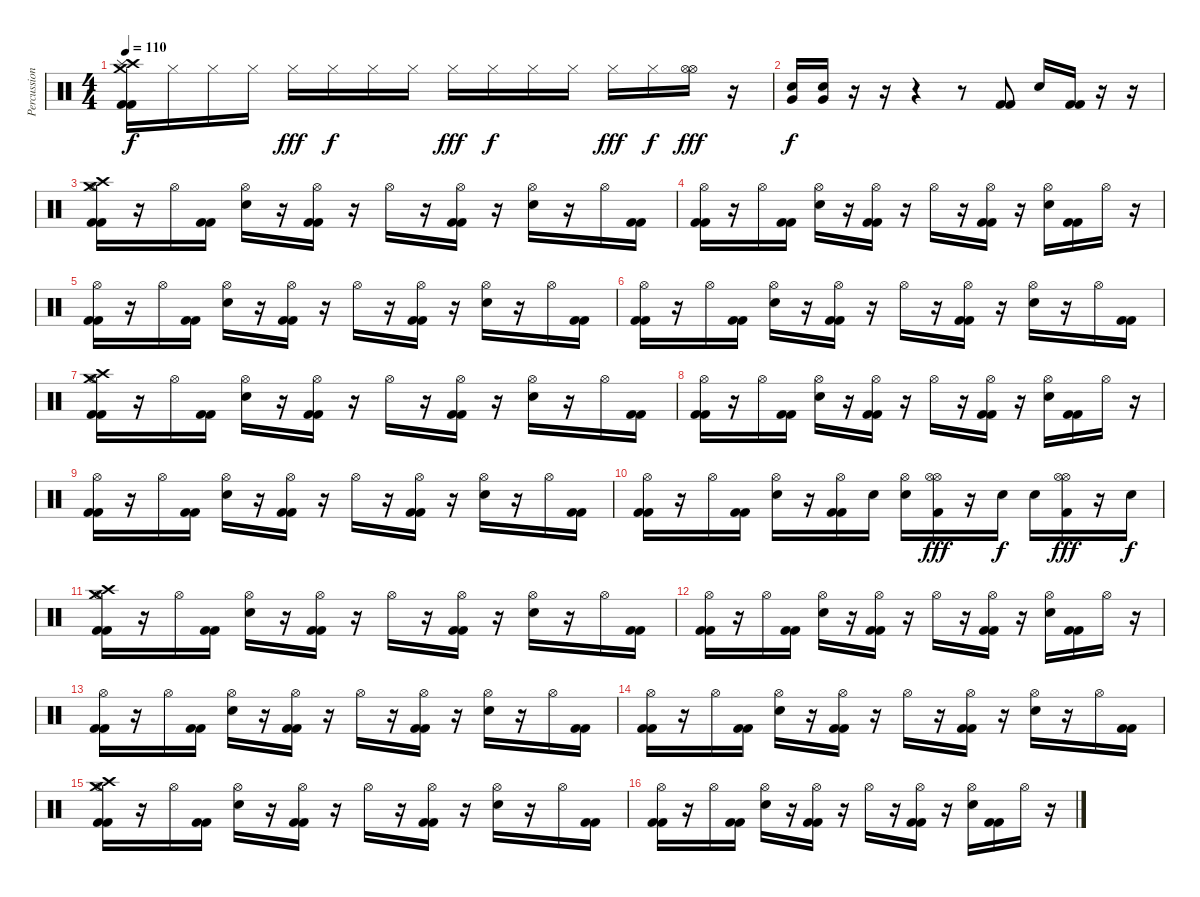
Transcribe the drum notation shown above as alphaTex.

\track ("Percussion" "Percussion") {instrument percussion}
\staff {score}
\articulation defaults
\ts (4 4)
\tempo 110
\clef neutral
\ks c
("Crash high (hit)" "Splash (hit)" "Crash medium (hit)" "Kick (hit) 2" "Kick (hit) 2").16{dy f} "Hi-Hat (closed)".16 "Hi-Hat (closed)".16 "Hi-Hat (closed)".16 "Hi-Hat (closed)".16{dy fff} "Hi-Hat (closed)".16{dy f} "Hi-Hat (closed)".16 "Hi-Hat (closed)".16 "Hi-Hat (closed)".16{dy fff} "Hi-Hat (closed)".16{dy f} "Hi-Hat (closed)".16 "Hi-Hat (closed)".16 "Hi-Hat (closed)".16{dy fff} "Hi-Hat (closed)".16{dy f} ("Hi-Hat (open)" "Hi-Hat (open)").16{dy fff} r.16 |
("Very Low Tom (hit)" "Electric Snare (hit)").16{dy f} ("Very Low Tom (hit)" "Electric Snare (hit)").16 r.16 r.16 r.4 r.8 ("Kick (hit) 2" "Kick (hit) 2").8 "Electric Snare (hit)".16 ("Kick (hit) 2" "Kick (hit) 2").16 r.16 r.16 |
("Hi-Hat (open)" "Crash high (hit)" "Crash medium (hit)" "Kick (hit) 2" "Kick (hit) 2").16 r.16 "Hi-Hat (open)".16 ("Kick (hit) 2" "Kick (hit) 2").16 ("Hi-Hat (open)" "Electric Snare (hit)").16 r.16 ("Hi-Hat (open)" "Kick (hit) 2" "Kick (hit) 2").16 r.16 "Hi-Hat (open)".16 r.16 ("Hi-Hat (open)" "Kick (hit) 2" "Kick (hit) 2").16 r.16 ("Hi-Hat (open)" "Electric Snare (hit)").16 r.16 "Hi-Hat (open)".16 ("Kick (hit) 2" "Kick (hit) 2").16 |
("Hi-Hat (open)" "Kick (hit) 2" "Kick (hit) 2").16 r.16 "Hi-Hat (open)".16 ("Kick (hit) 2" "Kick (hit) 2").16 ("Hi-Hat (open)" "Electric Snare (hit)").16 r.16 ("Hi-Hat (open)" "Kick (hit) 2" "Kick (hit) 2").16 r.16 "Hi-Hat (open)".16 r.16 ("Hi-Hat (open)" "Kick (hit) 2" "Kick (hit) 2").16 r.16 ("Hi-Hat (open)" "Electric Snare (hit)").16 ("Kick (hit) 2" "Kick (hit) 2").16 "Hi-Hat (open)".16 r.16 |
("Hi-Hat (open)" "Kick (hit) 2" "Kick (hit) 2").16 r.16 "Hi-Hat (open)".16 ("Kick (hit) 2" "Kick (hit) 2").16 ("Hi-Hat (open)" "Electric Snare (hit)").16 r.16 ("Hi-Hat (open)" "Kick (hit) 2" "Kick (hit) 2").16 r.16 "Hi-Hat (open)".16 r.16 ("Hi-Hat (open)" "Kick (hit) 2" "Kick (hit) 2").16 r.16 ("Hi-Hat (open)" "Electric Snare (hit)").16 r.16 "Hi-Hat (open)".16 ("Kick (hit) 2" "Kick (hit) 2").16 |
("Hi-Hat (open)" "Kick (hit) 2" "Kick (hit) 2").16 r.16 "Hi-Hat (open)".16 ("Kick (hit) 2" "Kick (hit) 2").16 ("Hi-Hat (open)" "Electric Snare (hit)").16 r.16 ("Hi-Hat (open)" "Kick (hit) 2" "Kick (hit) 2").16 r.16 "Hi-Hat (open)".16 r.16 ("Hi-Hat (open)" "Kick (hit) 2" "Kick (hit) 2").16 r.16 ("Hi-Hat (open)" "Electric Snare (hit)").16 r.16 "Hi-Hat (open)".16 ("Kick (hit) 2" "Kick (hit) 2").16 |
("Hi-Hat (open)" "Crash high (hit)" "Crash medium (hit)" "Kick (hit) 2" "Kick (hit) 2").16 r.16 "Hi-Hat (open)".16 ("Kick (hit) 2" "Kick (hit) 2").16 ("Hi-Hat (open)" "Electric Snare (hit)").16 r.16 ("Hi-Hat (open)" "Kick (hit) 2" "Kick (hit) 2").16 r.16 "Hi-Hat (open)".16 r.16 ("Hi-Hat (open)" "Kick (hit) 2" "Kick (hit) 2").16 r.16 ("Hi-Hat (open)" "Electric Snare (hit)").16 r.16 "Hi-Hat (open)".16 ("Kick (hit) 2" "Kick (hit) 2").16 |
("Hi-Hat (open)" "Kick (hit) 2" "Kick (hit) 2").16 r.16 "Hi-Hat (open)".16 ("Kick (hit) 2" "Kick (hit) 2").16 ("Hi-Hat (open)" "Electric Snare (hit)").16 r.16 ("Hi-Hat (open)" "Kick (hit) 2" "Kick (hit) 2").16 r.16 "Hi-Hat (open)".16 r.16 ("Hi-Hat (open)" "Kick (hit) 2" "Kick (hit) 2").16 r.16 ("Hi-Hat (open)" "Electric Snare (hit)").16 ("Kick (hit) 2" "Kick (hit) 2").16 "Hi-Hat (open)".16 r.16 |
("Hi-Hat (open)" "Kick (hit) 2" "Kick (hit) 2").16 r.16 "Hi-Hat (open)".16 ("Kick (hit) 2" "Kick (hit) 2").16 ("Hi-Hat (open)" "Electric Snare (hit)").16 r.16 ("Hi-Hat (open)" "Kick (hit) 2" "Kick (hit) 2").16 r.16 "Hi-Hat (open)".16 r.16 ("Hi-Hat (open)" "Kick (hit) 2" "Kick (hit) 2").16 r.16 ("Hi-Hat (open)" "Electric Snare (hit)").16 r.16 "Hi-Hat (open)".16 ("Kick (hit) 2" "Kick (hit) 2").16 |
("Hi-Hat (open)" "Kick (hit) 2" "Kick (hit) 2").16 r.16 "Hi-Hat (open)".16 ("Kick (hit) 2" "Kick (hit) 2").16 ("Hi-Hat (open)" "Electric Snare (hit)").16 r.16 ("Hi-Hat (open)" "Kick (hit) 2" "Kick (hit) 2").16 "Electric Snare (hit)".16 ("Hi-Hat (open)" "Electric Snare (hit)").16 ("Hi-Hat (open)" "Hi-Hat (open)" "Kick (hit) 2").16{dy fff} r.16 "Electric Snare (hit)".16{dy f} "Electric Snare (hit)".16 ("Hi-Hat (open)" "Hi-Hat (open)" "Kick (hit) 2").16{dy fff} r.16 "Electric Snare (hit)".16{dy f} |
("Hi-Hat (open)" "Crash high (hit)" "Crash medium (hit)" "Kick (hit) 2" "Kick (hit) 2").16 r.16 "Hi-Hat (open)".16 ("Kick (hit) 2" "Kick (hit) 2").16 ("Hi-Hat (open)" "Electric Snare (hit)").16 r.16 ("Hi-Hat (open)" "Kick (hit) 2" "Kick (hit) 2").16 r.16 "Hi-Hat (open)".16 r.16 ("Hi-Hat (open)" "Kick (hit) 2" "Kick (hit) 2").16 r.16 ("Hi-Hat (open)" "Electric Snare (hit)").16 r.16 "Hi-Hat (open)".16 ("Kick (hit) 2" "Kick (hit) 2").16 |
("Hi-Hat (open)" "Kick (hit) 2" "Kick (hit) 2").16 r.16 "Hi-Hat (open)".16 ("Kick (hit) 2" "Kick (hit) 2").16 ("Hi-Hat (open)" "Electric Snare (hit)").16 r.16 ("Hi-Hat (open)" "Kick (hit) 2" "Kick (hit) 2").16 r.16 "Hi-Hat (open)".16 r.16 ("Hi-Hat (open)" "Kick (hit) 2" "Kick (hit) 2").16 r.16 ("Hi-Hat (open)" "Electric Snare (hit)").16 ("Kick (hit) 2" "Kick (hit) 2").16 "Hi-Hat (open)".16 r.16 |
("Hi-Hat (open)" "Kick (hit) 2" "Kick (hit) 2").16 r.16 "Hi-Hat (open)".16 ("Kick (hit) 2" "Kick (hit) 2").16 ("Hi-Hat (open)" "Electric Snare (hit)").16 r.16 ("Hi-Hat (open)" "Kick (hit) 2" "Kick (hit) 2").16 r.16 "Hi-Hat (open)".16 r.16 ("Hi-Hat (open)" "Kick (hit) 2" "Kick (hit) 2").16 r.16 ("Hi-Hat (open)" "Electric Snare (hit)").16 r.16 "Hi-Hat (open)".16 ("Kick (hit) 2" "Kick (hit) 2").16 |
("Hi-Hat (open)" "Kick (hit) 2" "Kick (hit) 2").16 r.16 "Hi-Hat (open)".16 ("Kick (hit) 2" "Kick (hit) 2").16 ("Hi-Hat (open)" "Electric Snare (hit)").16 r.16 ("Hi-Hat (open)" "Kick (hit) 2" "Kick (hit) 2").16 r.16 "Hi-Hat (open)".16 r.16 ("Hi-Hat (open)" "Kick (hit) 2" "Kick (hit) 2").16 r.16 ("Hi-Hat (open)" "Electric Snare (hit)").16 r.16 "Hi-Hat (open)".16 ("Kick (hit) 2" "Kick (hit) 2").16 |
("Hi-Hat (open)" "Crash high (hit)" "Crash medium (hit)" "Kick (hit) 2" "Kick (hit) 2").16 r.16 "Hi-Hat (open)".16 ("Kick (hit) 2" "Kick (hit) 2").16 ("Hi-Hat (open)" "Electric Snare (hit)").16 r.16 ("Hi-Hat (open)" "Kick (hit) 2" "Kick (hit) 2").16 r.16 "Hi-Hat (open)".16 r.16 ("Hi-Hat (open)" "Kick (hit) 2" "Kick (hit) 2").16 r.16 ("Hi-Hat (open)" "Electric Snare (hit)").16 r.16 "Hi-Hat (open)".16 ("Kick (hit) 2" "Kick (hit) 2").16 |
("Hi-Hat (open)" "Kick (hit) 2" "Kick (hit) 2").16 r.16 "Hi-Hat (open)".16 ("Kick (hit) 2" "Kick (hit) 2").16 ("Hi-Hat (open)" "Electric Snare (hit)").16 r.16 ("Hi-Hat (open)" "Kick (hit) 2" "Kick (hit) 2").16 r.16 "Hi-Hat (open)".16 r.16 ("Hi-Hat (open)" "Kick (hit) 2" "Kick (hit) 2").16 r.16 ("Hi-Hat (open)" "Electric Snare (hit)").16 ("Kick (hit) 2" "Kick (hit) 2").16 "Hi-Hat (open)".16 r.16
